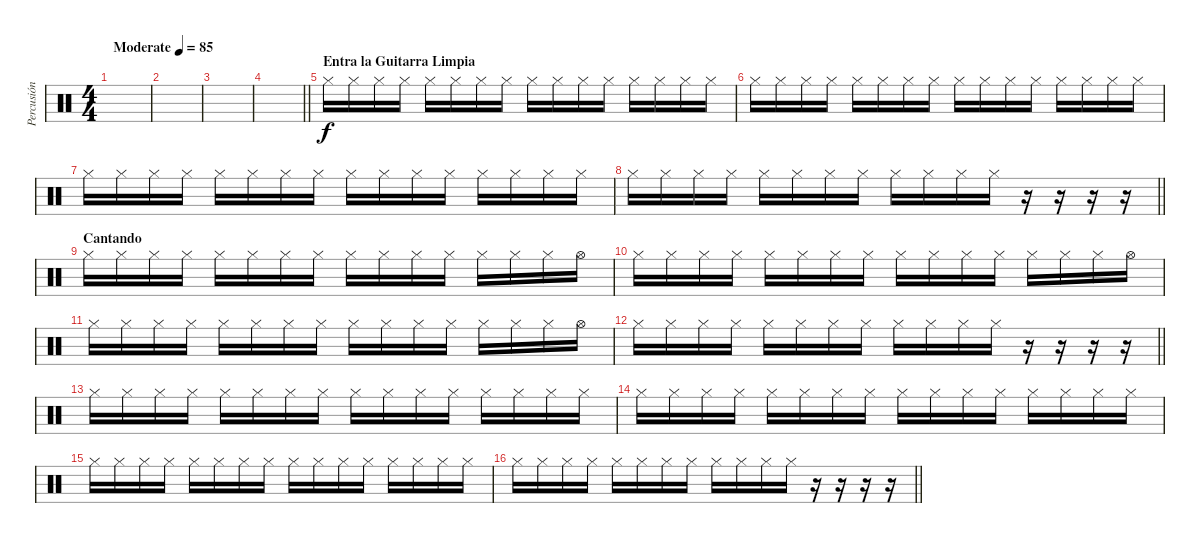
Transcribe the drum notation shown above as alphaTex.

\track ("Percusión" "Percusión") {instrument percussion}
\staff {score}
\articulation defaults
\ts (4 4)
\tempo (85 "Moderate")
\clef neutral
\ks c
|
|
|
\barLineRight lightlight
|
\section ("" "Entra la Guitarra Limpia")
"Hi-Hat (closed)".16 "Hi-Hat (closed)".16 "Hi-Hat (closed)".16 "Hi-Hat (closed)".16 "Hi-Hat (closed)".16 "Hi-Hat (closed)".16 "Hi-Hat (closed)".16 "Hi-Hat (closed)".16 "Hi-Hat (closed)".16 "Hi-Hat (closed)".16 "Hi-Hat (closed)".16 "Hi-Hat (closed)".16 "Hi-Hat (closed)".16 "Hi-Hat (closed)".16 "Hi-Hat (closed)".16 "Hi-Hat (closed)".16 |
"Hi-Hat (closed)".16 "Hi-Hat (closed)".16 "Hi-Hat (closed)".16 "Hi-Hat (closed)".16 "Hi-Hat (closed)".16 "Hi-Hat (closed)".16 "Hi-Hat (closed)".16 "Hi-Hat (closed)".16 "Hi-Hat (closed)".16 "Hi-Hat (closed)".16 "Hi-Hat (closed)".16 "Hi-Hat (closed)".16 "Hi-Hat (closed)".16 "Hi-Hat (closed)".16 "Hi-Hat (closed)".16 "Hi-Hat (closed)".16 |
"Hi-Hat (closed)".16 "Hi-Hat (closed)".16 "Hi-Hat (closed)".16 "Hi-Hat (closed)".16 "Hi-Hat (closed)".16 "Hi-Hat (closed)".16 "Hi-Hat (closed)".16 "Hi-Hat (closed)".16 "Hi-Hat (closed)".16 "Hi-Hat (closed)".16 "Hi-Hat (closed)".16 "Hi-Hat (closed)".16 "Hi-Hat (closed)".16 "Hi-Hat (closed)".16 "Hi-Hat (closed)".16 "Hi-Hat (closed)".16 |
\barLineRight lightlight "Hi-Hat (closed)".16 "Hi-Hat (closed)".16 "Hi-Hat (closed)".16 "Hi-Hat (closed)".16 "Hi-Hat (closed)".16 "Hi-Hat (closed)".16 "Hi-Hat (closed)".16 "Hi-Hat (closed)".16 "Hi-Hat (closed)".16 "Hi-Hat (closed)".16 "Hi-Hat (closed)".16 "Hi-Hat (closed)".16
r.16 r.16 r.16 r.16 |
\section ("" "Cantando")
"Hi-Hat (closed)".16 "Hi-Hat (closed)".16 "Hi-Hat (closed)".16 "Hi-Hat (closed)".16 "Hi-Hat (closed)".16 "Hi-Hat (closed)".16 "Hi-Hat (closed)".16 "Hi-Hat (closed)".16 "Hi-Hat (closed)".16 "Hi-Hat (closed)".16 "Hi-Hat (closed)".16 "Hi-Hat (closed)".16 "Hi-Hat (closed)".16 "Hi-Hat (closed)".16 "Hi-Hat (closed)".16 "Hi-Hat (open)".16 |
"Hi-Hat (closed)".16 "Hi-Hat (closed)".16 "Hi-Hat (closed)".16 "Hi-Hat (closed)".16 "Hi-Hat (closed)".16 "Hi-Hat (closed)".16 "Hi-Hat (closed)".16 "Hi-Hat (closed)".16 "Hi-Hat (closed)".16 "Hi-Hat (closed)".16 "Hi-Hat (closed)".16 "Hi-Hat (closed)".16 "Hi-Hat (closed)".16 "Hi-Hat (closed)".16 "Hi-Hat (closed)".16 "Hi-Hat (open)".16 |
"Hi-Hat (closed)".16 "Hi-Hat (closed)".16 "Hi-Hat (closed)".16 "Hi-Hat (closed)".16 "Hi-Hat (closed)".16 "Hi-Hat (closed)".16 "Hi-Hat (closed)".16 "Hi-Hat (closed)".16 "Hi-Hat (closed)".16 "Hi-Hat (closed)".16 "Hi-Hat (closed)".16 "Hi-Hat (closed)".16 "Hi-Hat (closed)".16 "Hi-Hat (closed)".16 "Hi-Hat (closed)".16 "Hi-Hat (open)".16 |
\barLineRight lightlight "Hi-Hat (closed)".16 "Hi-Hat (closed)".16 "Hi-Hat (closed)".16 "Hi-Hat (closed)".16 "Hi-Hat (closed)".16 "Hi-Hat (closed)".16 "Hi-Hat (closed)".16 "Hi-Hat (closed)".16 "Hi-Hat (closed)".16 "Hi-Hat (closed)".16 "Hi-Hat (closed)".16 "Hi-Hat (closed)".16
r.16 r.16 r.16 r.16 |
"Hi-Hat (closed)".16 "Hi-Hat (closed)".16 "Hi-Hat (closed)".16 "Hi-Hat (closed)".16 "Hi-Hat (closed)".16 "Hi-Hat (closed)".16 "Hi-Hat (closed)".16 "Hi-Hat (closed)".16 "Hi-Hat (closed)".16 "Hi-Hat (closed)".16 "Hi-Hat (closed)".16 "Hi-Hat (closed)".16 "Hi-Hat (closed)".16 "Hi-Hat (closed)".16 "Hi-Hat (closed)".16 "Hi-Hat (closed)".16 |
"Hi-Hat (closed)".16 "Hi-Hat (closed)".16 "Hi-Hat (closed)".16 "Hi-Hat (closed)".16 "Hi-Hat (closed)".16 "Hi-Hat (closed)".16 "Hi-Hat (closed)".16 "Hi-Hat (closed)".16 "Hi-Hat (closed)".16 "Hi-Hat (closed)".16 "Hi-Hat (closed)".16 "Hi-Hat (closed)".16 "Hi-Hat (closed)".16 "Hi-Hat (closed)".16 "Hi-Hat (closed)".16 "Hi-Hat (closed)".16 |
"Hi-Hat (closed)".16 "Hi-Hat (closed)".16 "Hi-Hat (closed)".16 "Hi-Hat (closed)".16 "Hi-Hat (closed)".16 "Hi-Hat (closed)".16 "Hi-Hat (closed)".16 "Hi-Hat (closed)".16 "Hi-Hat (closed)".16 "Hi-Hat (closed)".16 "Hi-Hat (closed)".16 "Hi-Hat (closed)".16 "Hi-Hat (closed)".16 "Hi-Hat (closed)".16 "Hi-Hat (closed)".16 "Hi-Hat (closed)".16 |
\barLineRight lightlight "Hi-Hat (closed)".16 "Hi-Hat (closed)".16 "Hi-Hat (closed)".16 "Hi-Hat (closed)".16 "Hi-Hat (closed)".16 "Hi-Hat (closed)".16 "Hi-Hat (closed)".16 "Hi-Hat (closed)".16 "Hi-Hat (closed)".16 "Hi-Hat (closed)".16 "Hi-Hat (closed)".16 "Hi-Hat (closed)".16
r.16 r.16 r.16 r.16
